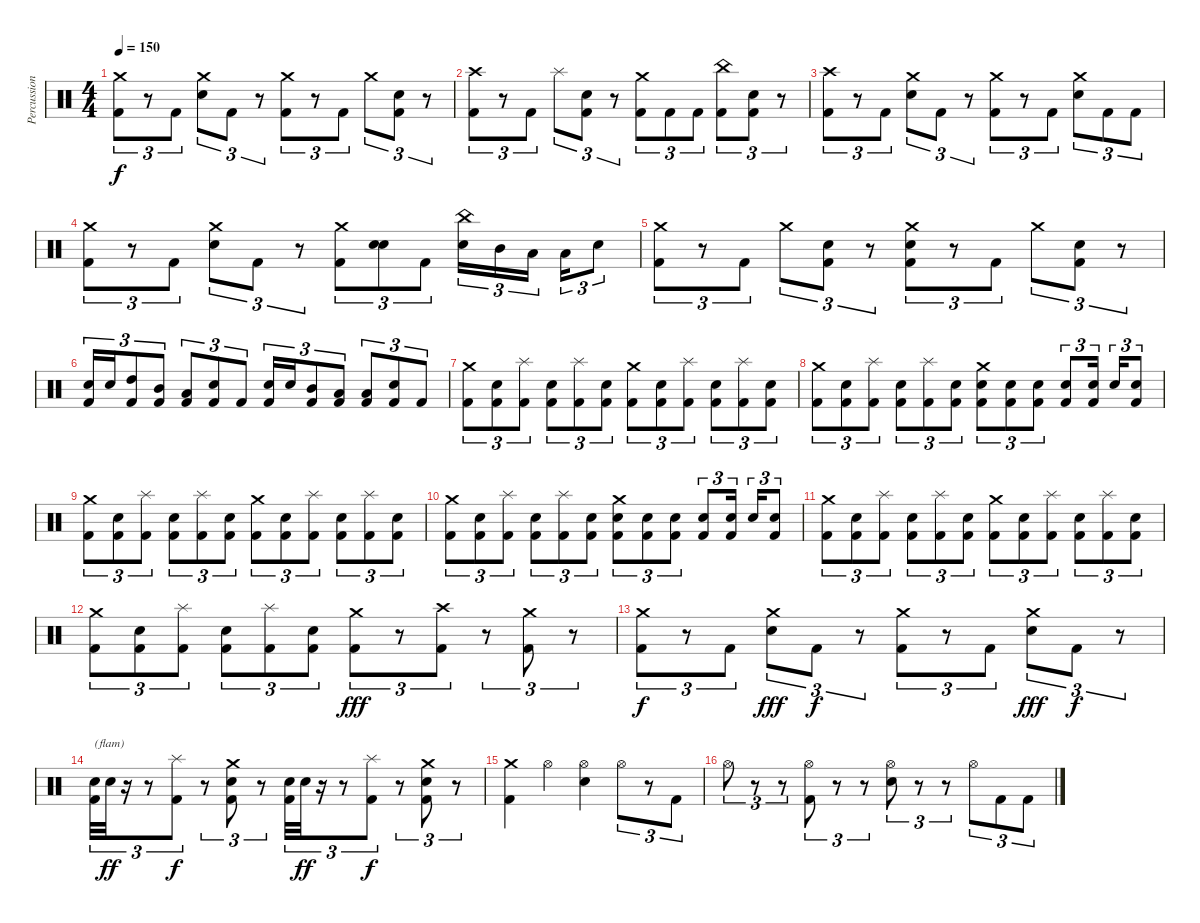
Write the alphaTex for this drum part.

\track ("Percussion" "Percussion") {instrument percussion}
\staff {score}
\articulation defaults
\ts (4 4)
\tempo 150
\clef neutral
\ks c
("Crash medium (hit)" "Kick (hit) 2").8{tu (3 2) dy f} r.8{tu (3 2)} "Kick (hit) 2".8{tu (3 2)} ("Crash medium (hit)" "Electric Snare (hit)").8{tu (3 2)} "Kick (hit) 2".8{tu (3 2)} r.8{tu (3 2)} ("Crash medium (hit)" "Kick (hit) 2").8{tu (3 2)} r.8{tu (3 2)} "Kick (hit) 2".8{tu (3 2)} "Crash medium (hit)".8{tu (3 2)} ("Electric Snare (hit)" "Kick (hit) 2").8{tu (3 2)} r.8{tu (3 2)} |
("Crash high (hit)" "Kick (hit) 2").8{tu (3 2)} r.8{tu (3 2)} "Kick (hit) 2".8{tu (3 2)} "Splash (hit)".8{tu (3 2)} ("Electric Snare (hit)" "Kick (hit) 2").8{tu (3 2)} r.8{tu (3 2)} ("Crash medium (hit)" "Kick (hit) 2").8{tu (3 2)} "Kick (hit) 2".8{tu (3 2)} "Kick (hit) 2".8{tu (3 2)} ("China (hit)" "Kick (hit) 2").8{tu (3 2)} ("Electric Snare (hit)" "Kick (hit) 2").8{tu (3 2)} r.8{tu (3 2)} |
("Crash high (hit)" "Kick (hit) 2").8{tu (3 2)} r.8{tu (3 2)} "Kick (hit) 2".8{tu (3 2)} ("Crash medium (hit)" "Electric Snare (hit)").8{tu (3 2)} "Kick (hit) 2".8{tu (3 2)} r.8{tu (3 2)} ("Crash medium (hit)" "Kick (hit) 2").8{tu (3 2)} r.8{tu (3 2)} "Kick (hit) 2".8{tu (3 2)} ("Crash medium (hit)" "Electric Snare (hit)").8{tu (3 2)} "Kick (hit) 2".8{tu (3 2)} "Kick (hit) 2".8{tu (3 2)} |
("Crash medium (hit)" "Kick (hit) 2").8{tu (3 2)} r.8{tu (3 2)} "Kick (hit) 2".8{tu (3 2)} ("Crash medium (hit)" "Electric Snare (hit)").8{tu (3 2)} "Kick (hit) 2".8{tu (3 2)} r.8{tu (3 2)} ("Crash medium (hit)" "Kick (hit) 2").8{tu (3 2)} ("Electric Snare (hit)" "Electric Snare (hit)").8{tu (3 2) bu 480} "Kick (hit) 2".8{tu (3 2)} ("China (hit)" "Electric Snare (hit)").16{tu (3 2)} "Mid Tom (hit)".16{tu (3 2)} "Low Tom (hit)".16{tu (3 2) beam splitsecondary} "Low Tom (hit)".16{tu (3 2)} "Electric Snare (hit)".8{tu (3 2)} |
("Crash medium (hit)" "Kick (hit) 2").8{tu (3 2)} r.8{tu (3 2)} "Kick (hit) 2".8{tu (3 2)} "Crash medium (hit)".8{tu (3 2)} ("Electric Snare (hit)" "Kick (hit) 2").8{tu (3 2)} r.8{tu (3 2)} ("Crash medium (hit)" "Electric Snare (hit)" "Kick (hit) 2").8{tu (3 2)} r.8{tu (3 2)} "Kick (hit) 2".8{tu (3 2)} "Crash medium (hit)".8{tu (3 2)} ("Electric Snare (hit)" "Kick (hit) 2").8{tu (3 2)} r.8{tu (3 2)} |
("Electric Snare (hit)" "Kick (hit) 2").16{tu (3 2)} "Electric Snare (hit)".16{tu (3 2)} ("High Tom (hit)" "Kick (hit) 2").8{tu (3 2)} ("Mid Tom (hit)" "Kick (hit) 2").8{tu (3 2)} ("Low Tom (hit)" "Kick (hit) 2").8{tu (3 2)} ("Electric Snare (hit)" "Kick (hit) 2").8{tu (3 2)} "Kick (hit) 2".8{tu (3 2)} ("Electric Snare (hit)" "Kick (hit) 2").16{tu (3 2)} "Electric Snare (hit)".16{tu (3 2)} ("Mid Tom (hit)" "Kick (hit) 2").8{tu (3 2)} ("Low Tom (hit)" "Kick (hit) 2").8{tu (3 2)} ("Low Tom (hit)" "Kick (hit) 2").8{tu (3 2)} ("Electric Snare (hit)" "Kick (hit) 2").8{tu (3 2)} "Kick (hit) 2".8{tu (3 2)} |
("Crash medium (hit)" "Kick (hit) 2").8{tu (3 2)} ("Electric Snare (hit)" "Kick (hit) 2").8{tu (3 2)} ("Splash (hit)" "Kick (hit) 2").8{tu (3 2)} ("Electric Snare (hit)" "Kick (hit) 2").8{tu (3 2)} ("Splash (hit)" "Kick (hit) 2").8{tu (3 2)} ("Electric Snare (hit)" "Kick (hit) 2").8{tu (3 2)} ("Crash medium (hit)" "Kick (hit) 2").8{tu (3 2)} ("Electric Snare (hit)" "Kick (hit) 2").8{tu (3 2)} ("Splash (hit)" "Kick (hit) 2").8{tu (3 2)} ("Electric Snare (hit)" "Kick (hit) 2").8{tu (3 2)} ("Splash (hit)" "Kick (hit) 2").8{tu (3 2)} ("Electric Snare (hit)" "Kick (hit) 2").8{tu (3 2)} |
("Crash medium (hit)" "Kick (hit) 2").8{tu (3 2)} ("Electric Snare (hit)" "Kick (hit) 2").8{tu (3 2)} ("Splash (hit)" "Kick (hit) 2").8{tu (3 2)} ("Electric Snare (hit)" "Kick (hit) 2").8{tu (3 2)} ("Splash (hit)" "Kick (hit) 2").8{tu (3 2)} ("Electric Snare (hit)" "Kick (hit) 2").8{tu (3 2)} ("Crash medium (hit)" "Electric Snare (hit)" "Kick (hit) 2").8{tu (3 2)} ("Electric Snare (hit)" "Kick (hit) 2").8{tu (3 2)} ("Electric Snare (hit)" "Kick (hit) 2").8{tu (3 2)} ("Electric Snare (hit)" "Kick (hit) 2").8{tu (3 2)} ("Electric Snare (hit)" "Kick (hit) 2").16{tu (3 2) beam splitsecondary} "Electric Snare (hit)".16{tu (3 2)} ("Electric Snare (hit)" "Kick (hit) 2").8{tu (3 2)} |
("Crash medium (hit)" "Kick (hit) 2").8{tu (3 2)} ("Electric Snare (hit)" "Kick (hit) 2").8{tu (3 2)} ("Splash (hit)" "Kick (hit) 2").8{tu (3 2)} ("Electric Snare (hit)" "Kick (hit) 2").8{tu (3 2)} ("Splash (hit)" "Kick (hit) 2").8{tu (3 2)} ("Electric Snare (hit)" "Kick (hit) 2").8{tu (3 2)} ("Crash medium (hit)" "Kick (hit) 2").8{tu (3 2)} ("Electric Snare (hit)" "Kick (hit) 2").8{tu (3 2)} ("Splash (hit)" "Kick (hit) 2").8{tu (3 2)} ("Electric Snare (hit)" "Kick (hit) 2").8{tu (3 2)} ("Splash (hit)" "Kick (hit) 2").8{tu (3 2)} ("Electric Snare (hit)" "Kick (hit) 2").8{tu (3 2)} |
("Crash medium (hit)" "Kick (hit) 2").8{tu (3 2)} ("Electric Snare (hit)" "Kick (hit) 2").8{tu (3 2)} ("Splash (hit)" "Kick (hit) 2").8{tu (3 2)} ("Electric Snare (hit)" "Kick (hit) 2").8{tu (3 2)} ("Splash (hit)" "Kick (hit) 2").8{tu (3 2)} ("Electric Snare (hit)" "Kick (hit) 2").8{tu (3 2)} ("Crash medium (hit)" "Electric Snare (hit)" "Kick (hit) 2").8{tu (3 2)} ("Electric Snare (hit)" "Kick (hit) 2").8{tu (3 2)} ("Electric Snare (hit)" "Kick (hit) 2").8{tu (3 2)} ("Electric Snare (hit)" "Kick (hit) 2").8{tu (3 2)} ("Electric Snare (hit)" "Kick (hit) 2").16{tu (3 2) beam splitsecondary} "Electric Snare (hit)".16{tu (3 2)} ("Electric Snare (hit)" "Kick (hit) 2").8{tu (3 2)} |
("Crash medium (hit)" "Kick (hit) 2").8{tu (3 2)} ("Electric Snare (hit)" "Kick (hit) 2").8{tu (3 2)} ("Splash (hit)" "Kick (hit) 2").8{tu (3 2)} ("Electric Snare (hit)" "Kick (hit) 2").8{tu (3 2)} ("Splash (hit)" "Kick (hit) 2").8{tu (3 2)} ("Electric Snare (hit)" "Kick (hit) 2").8{tu (3 2)} ("Crash medium (hit)" "Kick (hit) 2").8{tu (3 2)} ("Electric Snare (hit)" "Kick (hit) 2").8{tu (3 2)} ("Splash (hit)" "Kick (hit) 2").8{tu (3 2)} ("Electric Snare (hit)" "Kick (hit) 2").8{tu (3 2)} ("Splash (hit)" "Kick (hit) 2").8{tu (3 2)} ("Electric Snare (hit)" "Kick (hit) 2").8{tu (3 2)} |
("Crash medium (hit)" "Kick (hit) 2").8{tu (3 2)} ("Electric Snare (hit)" "Kick (hit) 2").8{tu (3 2)} ("Splash (hit)" "Kick (hit) 2").8{tu (3 2)} ("Electric Snare (hit)" "Kick (hit) 2").8{tu (3 2)} ("Splash (hit)" "Kick (hit) 2").8{tu (3 2)} ("Electric Snare (hit)" "Kick (hit) 2").8{tu (3 2)} ("Crash medium (hit)" "Kick (hit) 2").8{tu (3 2) dy fff} r.8{tu (3 2)} ("Crash high (hit)" "Kick (hit) 2").8{tu (3 2)} r.8{tu (3 2)} ("Crash medium (hit)" "Kick (hit) 2").8{tu (3 2)} r.8{tu (3 2)} |
("Crash medium (hit)" "Kick (hit) 2").8{tu (3 2) dy f} r.8{tu (3 2)} "Kick (hit) 2".8{tu (3 2)} ("Crash medium (hit)" "Electric Snare (hit)").8{tu (3 2) dy fff} "Kick (hit) 2".8{tu (3 2) dy f} r.8{tu (3 2)} ("Crash medium (hit)" "Kick (hit) 2").8{tu (3 2)} r.8{tu (3 2)} "Kick (hit) 2".8{tu (3 2)} ("Crash medium (hit)" "Electric Snare (hit)").8{tu (3 2) dy fff} "Kick (hit) 2".8{tu (3 2) dy f} r.8{tu (3 2)} |
("Electric Snare (hit)" "Kick (hit) 2").32{tu (3 2) txt "(flam)"} "Electric Snare (hit)".32{tu (3 2) dy ff} r.16{tu (3 2)} r.8{tu (3 2)} ("Splash (hit)" "Kick (hit) 2").8{tu (3 2) dy f} r.8{tu (3 2)} ("Crash medium (hit)" "Electric Snare (hit)" "Kick (hit) 2").8{tu (3 2)} r.8{tu (3 2)} ("Electric Snare (hit)" "Kick (hit) 2").32{tu (3 2)} "Electric Snare (hit)".32{tu (3 2) dy ff} r.16{tu (3 2)} r.8{tu (3 2)} ("Splash (hit)" "Kick (hit) 2").8{tu (3 2) dy f} r.8{tu (3 2)} ("Crash medium (hit)" "Electric Snare (hit)" "Kick (hit) 2").8{tu (3 2)} r.8{tu (3 2)} |
("Crash medium (hit)" "Kick (hit) 2").4 "Hi-Hat (open)".4 ("Hi-Hat (open)" "Electric Snare (hit)").4 "Hi-Hat (open)".8{tu (3 2)} r.8{tu (3 2)} "Kick (hit) 2".8{tu (3 2)} |
"Hi-Hat (open)".8{tu (3 2)} r.8{tu (3 2)} r.8{tu (3 2)} ("Hi-Hat (open)" "Kick (hit) 2").8{tu (3 2)} r.8{tu (3 2)} r.8{tu (3 2)} ("Hi-Hat (open)" "Electric Snare (hit)").8{tu (3 2)} r.8{tu (3 2)} r.8{tu (3 2)} "Hi-Hat (open)".8{tu (3 2)} "Kick (hit) 2".8{tu (3 2)} "Kick (hit) 2".8{tu (3 2)}
